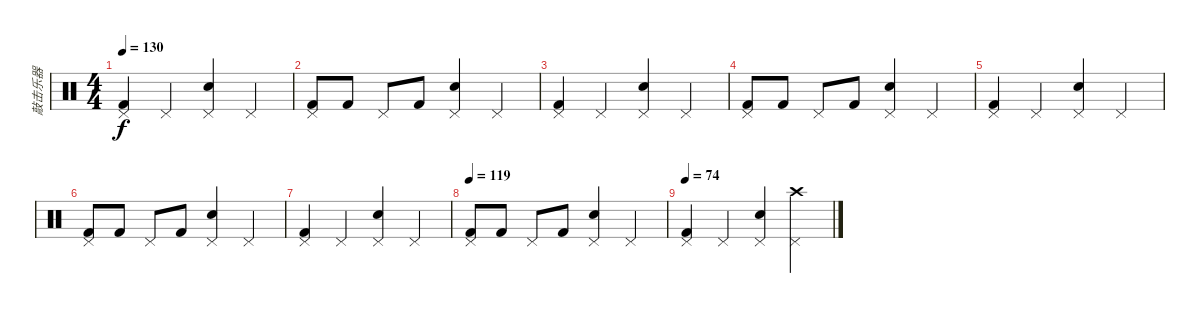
\track ("敲击乐器" "敲击乐器") {instrument percussion}
\staff {score}
\articulation defaults
\ts (4 4)
\tempo 130
\clef neutral
\ks c
("Kick (hit) 2" "Pedal Hi-Hat (hit)").4{dy f} "Pedal Hi-Hat (hit)".4 ("Pedal Hi-Hat (hit)" "Electric Snare (hit)").4 "Pedal Hi-Hat (hit)".4 |
("Pedal Hi-Hat (hit)" "Kick (hit) 2").8 "Kick (hit) 2".8 "Pedal Hi-Hat (hit)".8 "Kick (hit) 2".8 ("Pedal Hi-Hat (hit)" "Electric Snare (hit)").4 "Pedal Hi-Hat (hit)".4 |
("Kick (hit) 2" "Pedal Hi-Hat (hit)").4 "Pedal Hi-Hat (hit)".4 ("Pedal Hi-Hat (hit)" "Electric Snare (hit)").4 "Pedal Hi-Hat (hit)".4 |
("Pedal Hi-Hat (hit)" "Kick (hit) 2").8 "Kick (hit) 2".8 "Pedal Hi-Hat (hit)".8 "Kick (hit) 2".8 ("Pedal Hi-Hat (hit)" "Electric Snare (hit)").4 "Pedal Hi-Hat (hit)".4 |
("Kick (hit) 2" "Pedal Hi-Hat (hit)").4 "Pedal Hi-Hat (hit)".4 ("Pedal Hi-Hat (hit)" "Electric Snare (hit)").4 "Pedal Hi-Hat (hit)".4 |
("Pedal Hi-Hat (hit)" "Kick (hit) 2").8 "Kick (hit) 2".8 "Pedal Hi-Hat (hit)".8 "Kick (hit) 2".8 ("Pedal Hi-Hat (hit)" "Electric Snare (hit)").4 "Pedal Hi-Hat (hit)".4 |
("Kick (hit) 2" "Pedal Hi-Hat (hit)").4 "Pedal Hi-Hat (hit)".4 ("Pedal Hi-Hat (hit)" "Electric Snare (hit)").4 "Pedal Hi-Hat (hit)".4 |
\tempo 119
("Pedal Hi-Hat (hit)" "Kick (hit) 2").8 "Kick (hit) 2".8 "Pedal Hi-Hat (hit)".8 "Kick (hit) 2".8 ("Pedal Hi-Hat (hit)" "Electric Snare (hit)").4 "Pedal Hi-Hat (hit)".4 |
\tempo 74
("Kick (hit) 2" "Pedal Hi-Hat (hit)").4 "Pedal Hi-Hat (hit)".4 ("Pedal Hi-Hat (hit)" "Electric Snare (hit)").4 ("Crash high (hit)" "Pedal Hi-Hat (hit)").4
